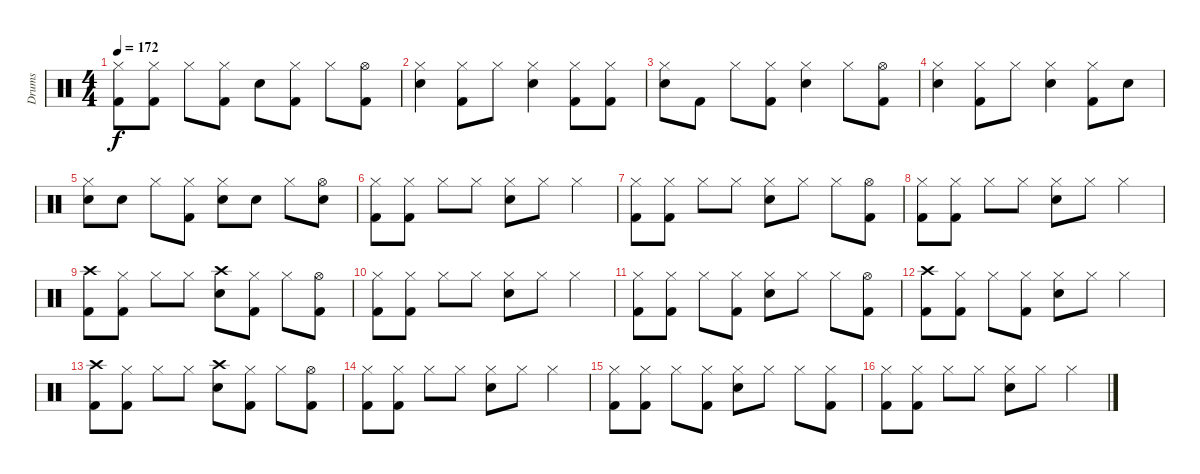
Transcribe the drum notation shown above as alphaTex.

\track ("Drums" "Drums") {instrument percussion}
\staff {score}
\articulation defaults
\ts (4 4)
\tempo 172
\clef neutral
\ks c
("Hi-Hat (closed)" "Kick (hit) 2").8{dy f} ("Hi-Hat (closed)" "Kick (hit) 2").8 "Hi-Hat (closed)".8 ("Hi-Hat (closed)" "Kick (hit) 2").8 "Electric Snare (hit)".8 ("Hi-Hat (closed)" "Kick (hit) 2").8 "Hi-Hat (closed)".8 ("Hi-Hat (open)" "Kick (hit) 2").8 |
("Hi-Hat (closed)" "Electric Snare (hit)").4 ("Hi-Hat (closed)" "Kick (hit) 2").8 "Hi-Hat (closed)".8 ("Hi-Hat (closed)" "Electric Snare (hit)").4 ("Hi-Hat (closed)" "Kick (hit) 2").8 ("Hi-Hat (closed)" "Kick (hit) 2").8 |
("Hi-Hat (closed)" "Electric Snare (hit)").8 "Kick (hit) 2".8 "Hi-Hat (closed)".8 ("Hi-Hat (closed)" "Kick (hit) 2").8 ("Hi-Hat (closed)" "Electric Snare (hit)").4 "Hi-Hat (closed)".8 ("Hi-Hat (open)" "Kick (hit) 2").8 |
("Hi-Hat (closed)" "Electric Snare (hit)").4 ("Hi-Hat (closed)" "Kick (hit) 2").8 "Hi-Hat (closed)".8 ("Hi-Hat (closed)" "Electric Snare (hit)").4 ("Hi-Hat (closed)" "Kick (hit) 2").8 "Electric Snare (hit)".8 |
("Hi-Hat (closed)" "Electric Snare (hit)").8 "Electric Snare (hit)".8 "Hi-Hat (closed)".8 ("Hi-Hat (closed)" "Kick (hit) 2").8 ("Hi-Hat (closed)" "Electric Snare (hit)").8 "Electric Snare (hit)".8 "Hi-Hat (closed)".8 ("Hi-Hat (open)" "Electric Snare (hit)").8 |
("Hi-Hat (closed)" "Kick (hit) 2").8 ("Hi-Hat (closed)" "Kick (hit) 2").8 "Hi-Hat (closed)".8 "Hi-Hat (closed)".8 ("Hi-Hat (closed)" "Electric Snare (hit)").8 "Hi-Hat (closed)".8 "Hi-Hat (closed)".4 |
("Hi-Hat (closed)" "Kick (hit) 2").8 ("Hi-Hat (closed)" "Kick (hit) 2").8 "Hi-Hat (closed)".8 "Hi-Hat (closed)".8 ("Hi-Hat (closed)" "Electric Snare (hit)").8 "Hi-Hat (closed)".8 "Hi-Hat (closed)".8 ("Hi-Hat (open)" "Kick (hit) 2").8 |
("Hi-Hat (closed)" "Kick (hit) 2").8 ("Hi-Hat (closed)" "Kick (hit) 2").8 "Hi-Hat (closed)".8 "Hi-Hat (closed)".8 ("Hi-Hat (closed)" "Electric Snare (hit)").8 "Hi-Hat (closed)".8 "Hi-Hat (closed)".4 |
("Crash high (hit)" "Kick (hit) 2").8 ("Hi-Hat (closed)" "Kick (hit) 2").8 "Hi-Hat (closed)".8 "Hi-Hat (closed)".8 ("Crash high (hit)" "Electric Snare (hit)").8 ("Hi-Hat (closed)" "Kick (hit) 2").8 "Hi-Hat (closed)".8 ("Hi-Hat (open)" "Kick (hit) 2").8 |
("Hi-Hat (closed)" "Kick (hit) 2").8 ("Hi-Hat (closed)" "Kick (hit) 2").8 "Hi-Hat (closed)".8 "Hi-Hat (closed)".8 ("Hi-Hat (closed)" "Electric Snare (hit)").8 "Hi-Hat (closed)".8 "Hi-Hat (closed)".4 |
("Hi-Hat (closed)" "Kick (hit) 2").8 ("Hi-Hat (closed)" "Kick (hit) 2").8 "Hi-Hat (closed)".8 ("Hi-Hat (closed)" "Kick (hit) 2").8 ("Hi-Hat (closed)" "Electric Snare (hit)").8 "Hi-Hat (closed)".8 "Hi-Hat (closed)".8 ("Hi-Hat (open)" "Kick (hit) 2").8 |
("Crash high (hit)" "Kick (hit) 2").8 ("Hi-Hat (closed)" "Kick (hit) 2").8 "Hi-Hat (closed)".8 ("Hi-Hat (closed)" "Kick (hit) 2").8 ("Hi-Hat (closed)" "Electric Snare (hit)").8 "Hi-Hat (closed)".8 "Hi-Hat (closed)".4 |
("Crash high (hit)" "Kick (hit) 2").8 ("Hi-Hat (closed)" "Kick (hit) 2").8 "Hi-Hat (closed)".8 "Hi-Hat (closed)".8 ("Crash high (hit)" "Electric Snare (hit)").8 ("Hi-Hat (closed)" "Kick (hit) 2").8 "Hi-Hat (closed)".8 ("Hi-Hat (open)" "Kick (hit) 2").8 |
("Hi-Hat (closed)" "Kick (hit) 2").8 ("Hi-Hat (closed)" "Kick (hit) 2").8 "Hi-Hat (closed)".8 "Hi-Hat (closed)".8 ("Hi-Hat (closed)" "Electric Snare (hit)").8 "Hi-Hat (closed)".8 "Hi-Hat (closed)".4 |
("Hi-Hat (closed)" "Kick (hit) 2").8 ("Hi-Hat (closed)" "Kick (hit) 2").8 "Hi-Hat (closed)".8 ("Hi-Hat (closed)" "Kick (hit) 2").8 ("Hi-Hat (closed)" "Electric Snare (hit)").8 "Hi-Hat (closed)".8 "Hi-Hat (closed)".8 ("Hi-Hat (closed)" "Kick (hit) 2").8 |
("Hi-Hat (closed)" "Kick (hit) 2").8 ("Hi-Hat (closed)" "Kick (hit) 2").8 "Hi-Hat (closed)".8 "Hi-Hat (closed)".8 ("Hi-Hat (closed)" "Electric Snare (hit)").8 "Hi-Hat (closed)".8 "Hi-Hat (closed)".4
